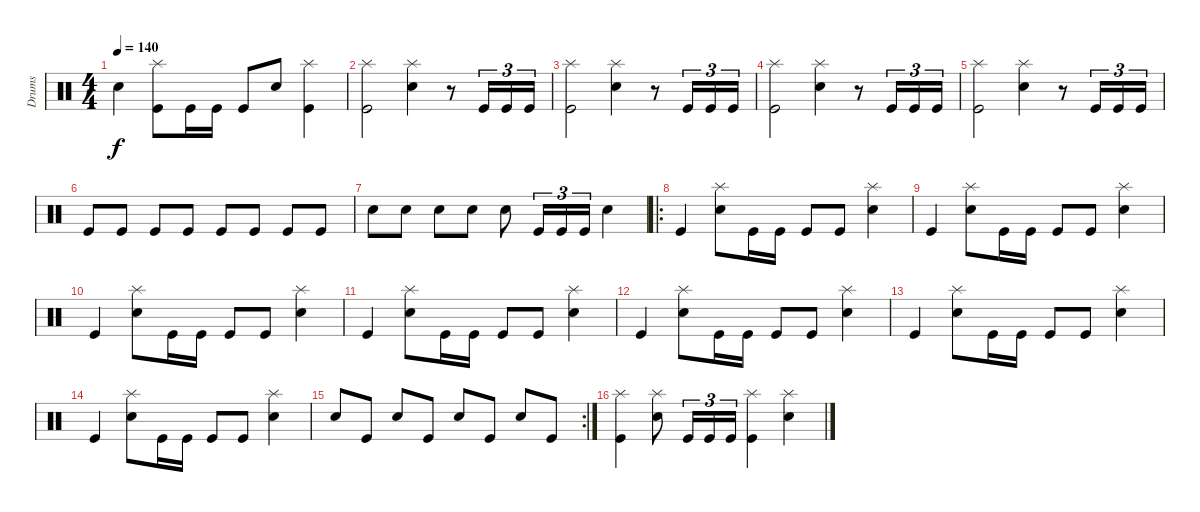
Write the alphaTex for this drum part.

\track ("Drums" "Drums") {instrument percussion}
\staff {score}
\articulation defaults
\ts (4 4)
\tempo 140
\clef neutral
\ks c "Electric Snare (hit)".4{dy f}
("Splash (hit)" "Kick (hit)").8 "Kick (hit)".16 "Kick (hit)".16 "Kick (hit)".8 "Electric Snare (hit)".8 ("Splash (hit)" "Kick (hit)").4 |
("Splash (hit)" "Kick (hit)").2 ("Electric Snare (hit)" "Splash (hit)").4 r.8 "Kick (hit)".16{tu (3 2)} "Kick (hit)".16{tu (3 2)} "Kick (hit)".16{tu (3 2)} |
("Splash (hit)" "Kick (hit)").2 ("Electric Snare (hit)" "Splash (hit)").4 r.8 "Kick (hit)".16{tu (3 2)} "Kick (hit)".16{tu (3 2)} "Kick (hit)".16{tu (3 2)} |
("Splash (hit)" "Kick (hit)").2 ("Electric Snare (hit)" "Splash (hit)").4 r.8 "Kick (hit)".16{tu (3 2)} "Kick (hit)".16{tu (3 2)} "Kick (hit)".16{tu (3 2)} |
("Splash (hit)" "Kick (hit)").2 ("Electric Snare (hit)" "Splash (hit)").4 r.8 "Kick (hit)".16{tu (3 2)} "Kick (hit)".16{tu (3 2)} "Kick (hit)".16{tu (3 2)} |
"Kick (hit)".8 "Kick (hit)".8 "Kick (hit)".8 "Kick (hit)".8 "Kick (hit)".8 "Kick (hit)".8 "Kick (hit)".8 "Kick (hit)".8 |
"Electric Snare (hit)".8 "Electric Snare (hit)".8 "Electric Snare (hit)".8 "Electric Snare (hit)".8 "Electric Snare (hit)".8 "Kick (hit)".16{tu (3 2)} "Kick (hit)".16{tu (3 2)} "Kick (hit)".16{tu (3 2)} "Electric Snare (hit)".4 |
\ro "Kick (hit)".4
("Splash (hit)" "Electric Snare (hit)").8 "Kick (hit)".16 "Kick (hit)".16 "Kick (hit)".8 "Kick (hit)".8 ("Splash (hit)" "Metronome (bell)").4 |
"Kick (hit)".4 ("Splash (hit)" "Electric Snare (hit)").8 "Kick (hit)".16 "Kick (hit)".16 "Kick (hit)".8 "Kick (hit)".8 ("Splash (hit)" "Metronome (bell)").4 |
"Kick (hit)".4 ("Splash (hit)" "Electric Snare (hit)").8 "Kick (hit)".16 "Kick (hit)".16 "Kick (hit)".8 "Kick (hit)".8 ("Splash (hit)" "Metronome (bell)").4 |
"Kick (hit)".4 ("Splash (hit)" "Electric Snare (hit)").8 "Kick (hit)".16 "Kick (hit)".16 "Kick (hit)".8 "Kick (hit)".8 ("Splash (hit)" "Metronome (bell)").4 |
"Kick (hit)".4 ("Splash (hit)" "Electric Snare (hit)").8 "Kick (hit)".16 "Kick (hit)".16 "Kick (hit)".8 "Kick (hit)".8 ("Splash (hit)" "Metronome (bell)").4 |
"Kick (hit)".4 ("Splash (hit)" "Electric Snare (hit)").8 "Kick (hit)".16 "Kick (hit)".16 "Kick (hit)".8 "Kick (hit)".8 ("Splash (hit)" "Metronome (bell)").4 |
"Kick (hit)".4 ("Splash (hit)" "Electric Snare (hit)").8 "Kick (hit)".16 "Kick (hit)".16 "Kick (hit)".8 "Kick (hit)".8 ("Splash (hit)" "Metronome (bell)").4 |
\rc 2 "Electric Snare (hit)".8 "Kick (hit)".8 "Electric Snare (hit)".8 "Kick (hit)".8 "Electric Snare (hit)".8 "Kick (hit)".8 "Electric Snare (hit)".8 "Kick (hit)".8
|
("Splash (hit)" "Kick (hit)").4 ("Electric Snare (hit)" "Splash (hit)").8 "Kick (hit)".16{tu (3 2)} "Kick (hit)".16{tu (3 2)} "Kick (hit)".16{tu (3 2)} ("Splash (hit)" "Kick (hit)").4 ("Splash (hit)" "Electric Snare (hit)").4
